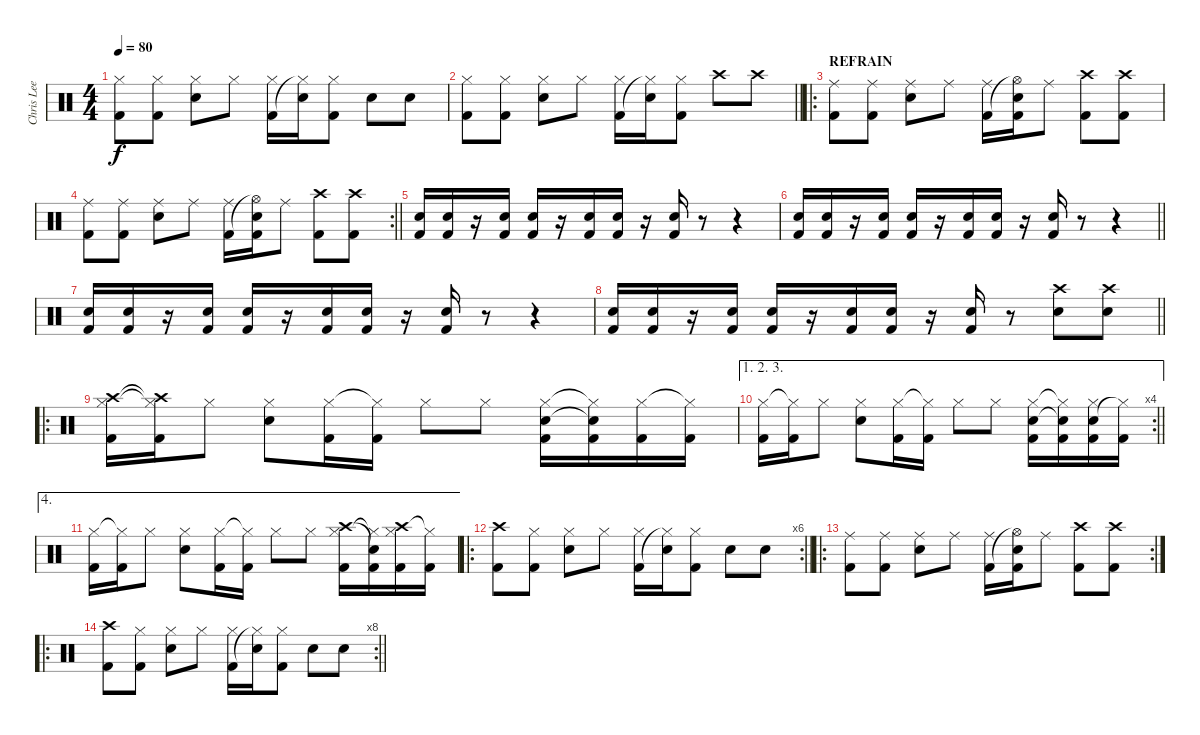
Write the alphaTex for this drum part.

\track ("Chris Lee" "Chris Lee") {instrument percussion}
\staff {score}
\articulation defaults
\ts (4 4)
\tempo 80
\clef neutral
\ks c
("Hi-Hat (closed)" "Kick (hit) 2").8{dy f} ("Hi-Hat (closed)" "Kick (hit) 2").8 ("Snare (hit) 2" "Hi-Hat (closed)").8 "Hi-Hat (closed)".8 ("Hi-Hat (closed)" "Kick (hit) 2").16 ("Snare (hit) 2" "Hi-Hat (closed)"{t}).16 ("Hi-Hat (closed)" "Kick (hit) 2").8 "Snare (hit) 2".8 "Snare (hit) 2".8 |
\barLineRight lightlight
("Hi-Hat (closed)" "Kick (hit) 2").8 ("Hi-Hat (closed)" "Kick (hit) 2").8 ("Snare (hit) 2" "Hi-Hat (closed)").8 "Hi-Hat (closed)".8 ("Hi-Hat (closed)" "Kick (hit) 2").16 ("Snare (hit) 2" "Hi-Hat (closed)"{t}).16 ("Hi-Hat (closed)" "Kick (hit) 2").8 "Crash high (hit)".8 "Crash high (hit)".8 |
\ro
\section ("" "REFRAIN")
("Ride (middle)" "Kick (hit) 2").8 ("Ride (middle)" "Kick (hit) 2").8 ("Snare (hit) 2" "Ride (middle)").8 "Ride (middle)".8 ("Ride (middle)" "Kick (hit) 2").16 ("Snare (hit) 2" "Hi-Hat (open)"{t} "Kick (hit) 2").16 "Ride (middle)".8 ("Crash high (hit)" "Kick (hit) 2").8 ("Crash high (hit)" "Kick (hit) 2").8 |
\rc 2
\barLineRight lightlight
("Ride (middle)" "Kick (hit) 2").8 ("Ride (middle)" "Kick (hit) 2").8 ("Snare (hit) 2" "Ride (middle)").8 "Ride (middle)".8 ("Ride (middle)" "Kick (hit) 2").16 ("Snare (hit) 2" "Hi-Hat (open)"{t} "Kick (hit) 2").16 "Ride (middle)".8 ("Crash high (hit)" "Kick (hit) 2").8 ("Crash high (hit)" "Kick (hit) 2").8 |
("Snare (hit) 2" "Kick (hit) 2").16 ("Snare (hit) 2" "Kick (hit) 2").16 r.16 ("Electric Snare (hit)" "Kick (hit) 2").16 ("Electric Snare (hit)" "Kick (hit) 2").16 r.16 ("Snare (hit) 2" "Kick (hit) 2").16 ("Snare (hit) 2" "Kick (hit) 2").16 r.16 ("Snare (hit) 2" "Kick (hit) 2").16 r.8 r.4 |
\barLineRight lightlight
("Snare (hit) 2" "Kick (hit) 2").16 ("Snare (hit) 2" "Kick (hit) 2").16 r.16 ("Electric Snare (hit)" "Kick (hit) 2").16 ("Electric Snare (hit)" "Kick (hit) 2").16 r.16 ("Snare (hit) 2" "Kick (hit) 2").16 ("Snare (hit) 2" "Kick (hit) 2").16 r.16 ("Snare (hit) 2" "Kick (hit) 2").16 r.8 r.4 |
("Snare (hit) 2" "Kick (hit) 2").16 ("Snare (hit) 2" "Kick (hit) 2").16 r.16 ("Electric Snare (hit)" "Kick (hit) 2").16 ("Electric Snare (hit)" "Kick (hit) 2").16 r.16 ("Snare (hit) 2" "Kick (hit) 2").16 ("Snare (hit) 2" "Kick (hit) 2").16 r.16 ("Snare (hit) 2" "Kick (hit) 2").16 r.8 r.4 |
\barLineRight lightlight
("Snare (hit) 2" "Kick (hit) 2").16 ("Snare (hit) 2" "Kick (hit) 2").16 r.16 ("Electric Snare (hit)" "Kick (hit) 2").16 ("Electric Snare (hit)" "Kick (hit) 2").16 r.16 ("Snare (hit) 2" "Kick (hit) 2").16 ("Snare (hit) 2" "Kick (hit) 2").16 r.16 ("Snare (hit) 2" "Kick (hit) 2").16 r.8 ("Crash high (hit)" "Snare (hit) 2").8 ("Crash high (hit)" "Snare (hit) 2").8 |
\ro
("Crash high (hit)" "Hi-Hat (closed)" "Kick (hit) 2").16 ("Crash high (hit)"{t} "Hi-Hat (closed)"{t} "Kick (hit) 2").16 "Hi-Hat (closed)".8 ("Snare (hit) 2" "Hi-Hat (closed)").8 ("Hi-Hat (closed)" "Kick (hit) 2").16 ("Hi-Hat (closed)"{t} "Kick (hit) 2").16 "Hi-Hat (closed)".8 "Hi-Hat (closed)".8 ("Snare (hit) 2" "Hi-Hat (closed)" "Kick (hit) 2").16 ("Snare (hit) 2"{t} "Hi-Hat (closed)"{t} "Kick (hit) 2").16 ("Hi-Hat (closed)" "Kick (hit) 2").16 ("Hi-Hat (closed)"{t} "Kick (hit) 2").16 |
\ae (1 2 3)
\rc 4
\barLineRight lightlight
("Hi-Hat (closed)" "Kick (hit) 2").16 ("Hi-Hat (closed)"{t} "Kick (hit) 2").16 "Hi-Hat (closed)".8 ("Snare (hit) 2" "Hi-Hat (closed)").8 ("Hi-Hat (closed)" "Kick (hit) 2").16 ("Hi-Hat (closed)"{t} "Kick (hit) 2").16 "Hi-Hat (closed)".8 "Hi-Hat (closed)".8 ("Snare (hit) 2" "Hi-Hat (closed)" "Kick (hit) 2").16 ("Snare (hit) 2"{t} "Hi-Hat (closed)"{t} "Kick (hit) 2").16 ("Snare (hit) 2" "Hi-Hat (closed)" "Kick (hit) 2").16 ("Hi-Hat (closed)"{t} "Kick (hit) 2").16 |
\ae 4
("Hi-Hat (closed)" "Kick (hit) 2").16 ("Hi-Hat (closed)"{t} "Kick (hit) 2").16 "Hi-Hat (closed)".8 ("Snare (hit) 2" "Hi-Hat (closed)").8 ("Hi-Hat (closed)" "Kick (hit) 2").16 ("Hi-Hat (closed)"{t} "Kick (hit) 2").16 "Hi-Hat (closed)".8 "Hi-Hat (closed)".8 ("Crash high (hit)" "Hi-Hat (closed)" "Kick (hit) 2").16 ("Snare (hit) 2"{t} "Hi-Hat (closed)"{t} "Kick (hit) 2").16 ("Crash high (hit)" "Hi-Hat (closed)" "Kick (hit) 2").16 ("Hi-Hat (closed)"{t} "Kick (hit) 2").16 |
\ro
\rc 6
\barLineRight lightlight
("Crash high (hit)" "Kick (hit) 2").8 ("Hi-Hat (closed)" "Kick (hit) 2").8 ("Snare (hit) 2" "Hi-Hat (closed)").8 "Hi-Hat (closed)".8 ("Hi-Hat (closed)" "Kick (hit) 2").16 ("Snare (hit) 2" "Hi-Hat (closed)"{t}).16 ("Hi-Hat (closed)" "Kick (hit) 2").8 "Snare (hit) 2".8 "Snare (hit) 2".8 |
\ro
\rc 2
("Ride (middle)" "Kick (hit) 2").8 ("Ride (middle)" "Kick (hit) 2").8 ("Snare (hit) 2" "Ride (middle)").8 "Ride (middle)".8 ("Ride (middle)" "Kick (hit) 2").16 ("Snare (hit) 2" "Hi-Hat (open)"{t} "Kick (hit) 2").16 "Ride (middle)".8 ("Crash high (hit)" "Kick (hit) 2").8 ("Crash high (hit)" "Kick (hit) 2").8 |
\ro
\rc 8
\barLineRight lightlight
("Crash high (hit)" "Kick (hit) 2").8 ("Hi-Hat (closed)" "Kick (hit) 2").8 ("Snare (hit) 2" "Hi-Hat (closed)").8 "Hi-Hat (closed)".8 ("Hi-Hat (closed)" "Kick (hit) 2").16 ("Snare (hit) 2" "Hi-Hat (closed)"{t}).16 ("Hi-Hat (closed)" "Kick (hit) 2").8 "Snare (hit) 2".8 "Snare (hit) 2".8
